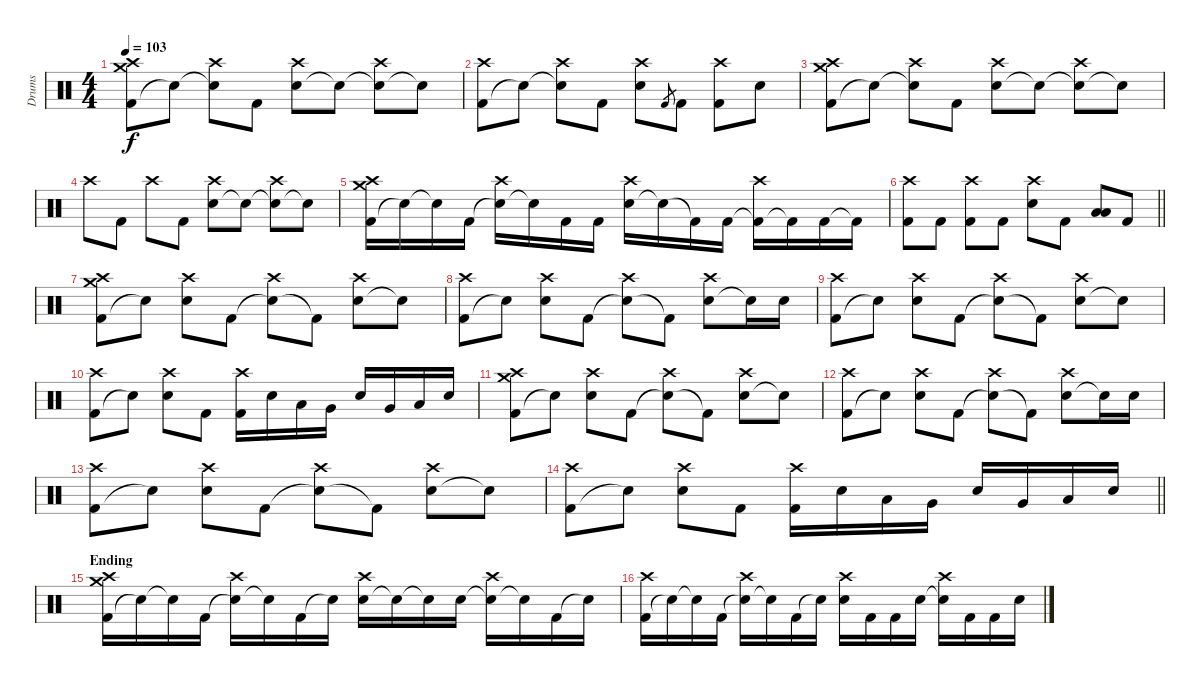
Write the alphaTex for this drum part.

\track ("Drums" "Drums") {instrument percussion}
\staff {score}
\articulation defaults
\ts (4 4)
\tempo 103
\clef neutral
\ks c
("Kick (hit) 2" "Crash medium (hit)" "Crash high (hit)").8{dy f} "Snare (hit)"{t}.8 ("Snare (hit)"{t} "Crash high (hit)").8 "Kick (hit) 2".8 ("Electric Snare (hit)" "Crash high (hit)").8 "Snare (hit)"{t}.8 ("Snare (hit)"{t} "Crash high (hit)").8 "Snare (hit)"{t}.8 |
("Kick (hit) 2" "Crash high (hit)").8 "Snare (hit)"{t}.8 ("Snare (hit)"{t} "Crash high (hit)").8 "Kick (hit) 2".8 ("Electric Snare (hit)" "Crash high (hit)").8 "Kick (hit) 2".8{gr} "Kick (hit) 2".8 ("Kick (hit) 2" "Crash high (hit)").8 "Electric Snare (hit)".8 |
("Kick (hit) 2" "Crash medium (hit)" "Crash high (hit)").8 "Snare (hit)"{t}.8 ("Snare (hit)"{t} "Crash high (hit)").8 "Kick (hit) 2".8 ("Electric Snare (hit)" "Crash high (hit)").8 "Snare (hit)"{t}.8 ("Snare (hit)"{t} "Crash high (hit)").8 "Snare (hit)"{t}.8 |
"Crash high (hit)".8 "Kick (hit) 2".8 "Crash high (hit)".8 "Kick (hit) 2".8 ("Electric Snare (hit)" "Crash high (hit)").8 "Snare (hit)"{t}.8 ("Snare (hit)"{t} "Crash high (hit)").8 "Snare (hit)"{t}.8 |
("Kick (hit) 2" "Crash medium (hit)" "Crash high (hit)").16 "Snare (hit)"{t}.16 "Snare (hit)"{t}.16 "Kick (hit) 2".16 ("Snare (hit)"{t} "Crash high (hit)").16 "Snare (hit)"{t}.16 "Kick (hit) 2".16 "Kick (hit) 2".16 ("Electric Snare (hit)" "Crash high (hit)").16 "Electric Snare (hit)"{t}.16 "Kick (hit) 2"{t}.16 "Kick (hit) 2".16 ("Kick (hit) 2"{t} "Crash high (hit)").16 "Kick (hit) 2"{t}.16 "Kick (hit) 2".16 "Kick (hit) 2"{t}.16 |
\barLineRight lightlight
("Kick (hit) 2" "Crash high (hit)").8 "Kick (hit) 2".8 ("Kick (hit) 2" "Crash high (hit)").8 "Kick (hit) 2".8 ("Electric Snare (hit)" "Crash high (hit)").8 "Kick (hit) 2".8 ("Low Tom (hit)" "Low Floor Tom (hit)").8 "Kick (hit) 2".8 |
("Kick (hit) 2" "Crash medium (hit)" "Crash high (hit)").8 "Snare (hit)"{t}.8 ("Electric Snare (hit)" "Crash high (hit)").8 "Kick (hit) 2".8 ("Snare (hit)"{t} "Crash high (hit)").8 "Kick (hit) 2"{t}.8 ("Electric Snare (hit)" "Crash high (hit)").8 "Electric Snare (hit)"{t}.8 |
("Kick (hit) 2" "Crash high (hit)").8 "Snare (hit)"{t}.8 ("Electric Snare (hit)" "Crash high (hit)").8 "Kick (hit) 2".8 ("Snare (hit)"{t} "Crash high (hit)").8 "Kick (hit) 2"{t}.8 ("Electric Snare (hit)" "Crash high (hit)").8 "Electric Snare (hit)"{t}.16 "Electric Snare (hit)".16 |
("Kick (hit) 2" "Crash high (hit)").8 "Snare (hit)"{t}.8 ("Electric Snare (hit)" "Crash high (hit)").8 "Kick (hit) 2".8 ("Snare (hit)"{t} "Crash high (hit)").8 "Kick (hit) 2"{t}.8 ("Electric Snare (hit)" "Crash high (hit)").8 "Electric Snare (hit)"{t}.8 |
("Kick (hit) 2" "Crash high (hit)").8 "Snare (hit)"{t}.8 ("Electric Snare (hit)" "Crash high (hit)").8 "Kick (hit) 2".8 ("Kick (hit) 2" "Crash high (hit)").16 "Electric Snare (hit)".16 "Low Tom (hit)".16 "Very Low Tom (hit)".16 "Electric Snare (hit)".16 "Very Low Tom (hit)".16 "Low Floor Tom (hit)".16 "Electric Snare (hit)".16 |
("Kick (hit) 2" "Crash medium (hit)" "Crash high (hit)").8 "Snare (hit)"{t}.8 ("Electric Snare (hit)" "Crash high (hit)").8 "Kick (hit) 2".8 ("Snare (hit)"{t} "Crash high (hit)").8 "Kick (hit) 2"{t}.8 ("Electric Snare (hit)" "Crash high (hit)").8 "Electric Snare (hit)"{t}.8 |
("Kick (hit) 2" "Crash high (hit)").8 "Snare (hit)"{t}.8 ("Electric Snare (hit)" "Crash high (hit)").8 "Kick (hit) 2".8 ("Snare (hit)"{t} "Crash high (hit)").8 "Kick (hit) 2"{t}.8 ("Electric Snare (hit)" "Crash high (hit)").8 "Electric Snare (hit)"{t}.16 "Electric Snare (hit)".16 |
("Kick (hit) 2" "Crash high (hit)").8 "Snare (hit)"{t}.8 ("Electric Snare (hit)" "Crash high (hit)").8 "Kick (hit) 2".8 ("Snare (hit)"{t} "Crash high (hit)").8 "Kick (hit) 2"{t}.8 ("Electric Snare (hit)" "Crash high (hit)").8 "Electric Snare (hit)"{t}.8 |
\barLineRight lightlight
("Kick (hit) 2" "Crash high (hit)").8 "Snare (hit)"{t}.8 ("Electric Snare (hit)" "Crash high (hit)").8 "Kick (hit) 2".8 ("Kick (hit) 2" "Crash high (hit)").16 "Electric Snare (hit)".16 "Low Tom (hit)".16 "Very Low Tom (hit)".16 "Electric Snare (hit)".16 "Very Low Tom (hit)".16 "Low Floor Tom (hit)".16 "Electric Snare (hit)".16 |
\section ("" "Ending")
("Kick (hit) 2" "Crash medium (hit)" "Crash high (hit)").16 "Snare (hit)"{t}.16 "Snare (hit)"{t}.16 "Kick (hit) 2".16 ("Snare (hit)"{t} "Crash high (hit)").16 "Snare (hit)"{t}.16 "Kick (hit) 2".16 "Snare (hit)"{t}.16 ("Electric Snare (hit)" "Crash high (hit)").16 "Snare (hit)"{t}.16 "Snare (hit)"{t}.16 "Electric Snare (hit)".16 ("Snare (hit)"{t} "Crash high (hit)").16 "Snare (hit)"{t}.16 "Kick (hit) 2".16 "Snare (hit)"{t}.16 |
("Kick (hit) 2" "Crash high (hit)").16 "Snare (hit)"{t}.16 "Snare (hit)"{t}.16 "Kick (hit) 2".16 ("Snare (hit)"{t} "Crash high (hit)").16 "Snare (hit)"{t}.16 "Kick (hit) 2".16 "Snare (hit)"{t}.16 ("Electric Snare (hit)" "Crash high (hit)").16 "Kick (hit) 2".16 "Kick (hit) 2".16 "Electric Snare (hit)".16 ("Snare (hit)"{t} "Crash high (hit)").16 "Kick (hit) 2".16 "Kick (hit) 2".16 "Electric Snare (hit)".16
